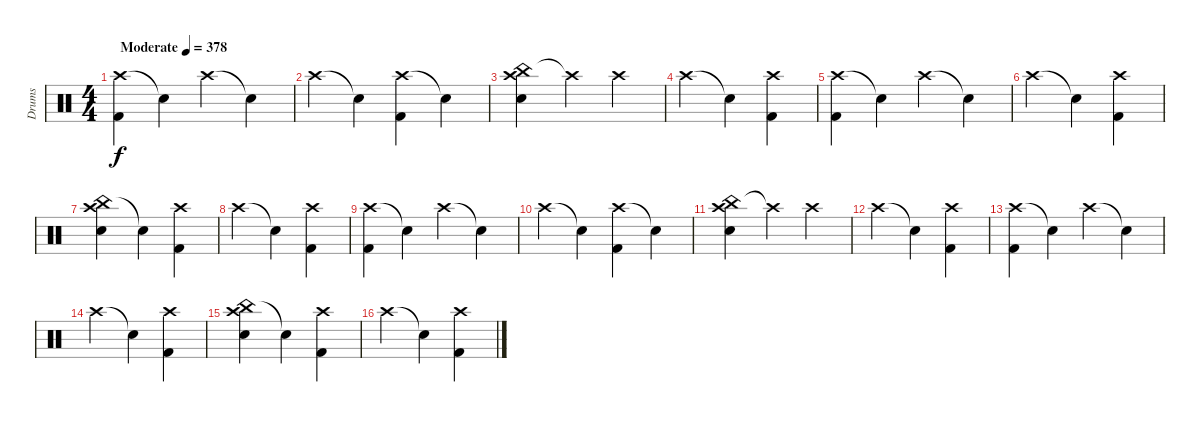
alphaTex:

\track ("Drums" "Drums") {instrument percussion}
\staff {score}
\articulation defaults
\ts (4 4)
\tempo (378 "Moderate")
\clef neutral
\ks c
("Crash high (hit)" "Kick (hit) 2").4{dy f} "Snare (hit)"{t}.4 "Crash high (hit)".4 "Snare (hit)"{t}.4 |
"Crash high (hit)".4 "Snare (hit)"{t}.4 ("Crash high (hit)" "Kick (hit) 2").4 "Snare (hit)"{t}.4 |
("China (hit)" "Crash high (hit)" "Electric Snare (hit)").4 "Crash high (hit)"{t}.4 "Crash high (hit)".4 |
"Crash high (hit)".4 "Snare (hit)"{t}.4 ("Crash high (hit)" "Kick (hit) 2").4 |
("Crash high (hit)" "Kick (hit) 2").4 "Snare (hit)"{t}.4 "Crash high (hit)".4 "Snare (hit)"{t}.4 |
"Crash high (hit)".4 "Snare (hit)"{t}.4 ("Crash high (hit)" "Kick (hit) 2").4 |
("China (hit)" "Crash high (hit)" "Electric Snare (hit)").4 "Snare (hit)"{t}.4 ("Crash high (hit)" "Kick (hit) 2").4 |
"Crash high (hit)".4 "Snare (hit)"{t}.4 ("Crash high (hit)" "Kick (hit) 2").4 |
("Crash high (hit)" "Kick (hit) 2").4 "Snare (hit)"{t}.4 "Crash high (hit)".4 "Snare (hit)"{t}.4 |
"Crash high (hit)".4 "Snare (hit)"{t}.4 ("Crash high (hit)" "Kick (hit) 2").4 "Snare (hit)"{t}.4 |
("China (hit)" "Crash high (hit)" "Electric Snare (hit)").4 "Crash high (hit)"{t}.4 "Crash high (hit)".4 |
"Crash high (hit)".4 "Snare (hit)"{t}.4 ("Crash high (hit)" "Kick (hit) 2").4 |
("Crash high (hit)" "Kick (hit) 2").4 "Snare (hit)"{t}.4 "Crash high (hit)".4 "Snare (hit)"{t}.4 |
"Crash high (hit)".4 "Snare (hit)"{t}.4 ("Crash high (hit)" "Kick (hit) 2").4 |
("China (hit)" "Crash high (hit)" "Electric Snare (hit)").4 "Snare (hit)"{t}.4 ("Crash high (hit)" "Kick (hit) 2").4 |
"Crash high (hit)".4 "Snare (hit)"{t}.4 ("Crash high (hit)" "Kick (hit) 2").4
